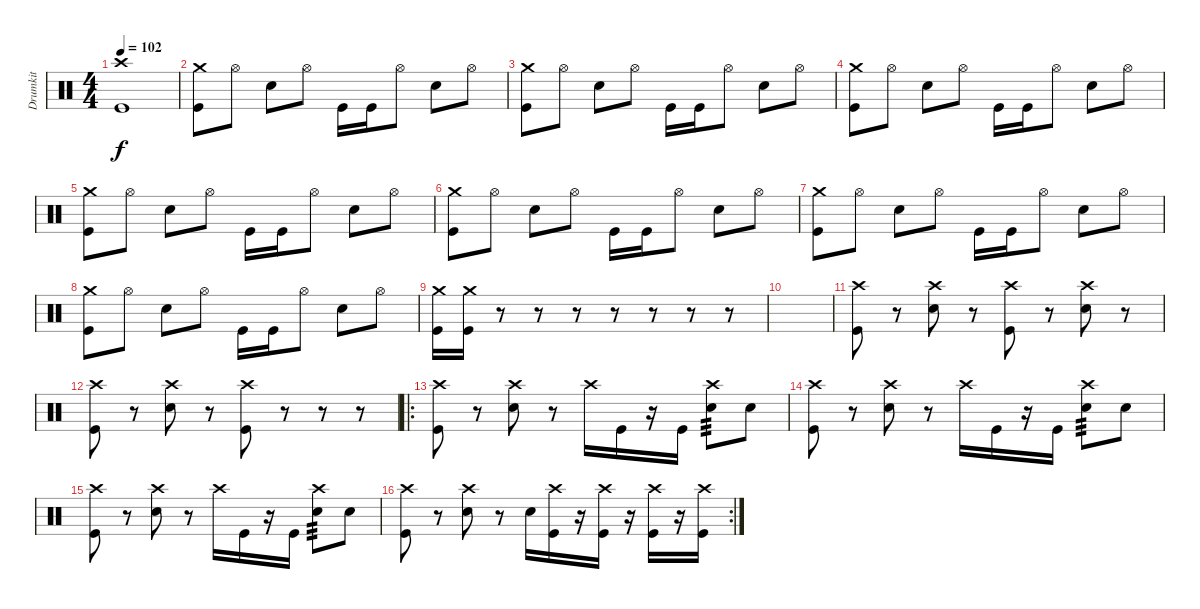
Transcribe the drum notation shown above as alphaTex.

\track ("Drumkit" "Drumkit") {instrument percussion}
\staff {score}
\articulation defaults
\ts (4 4)
\tempo 102
\clef neutral
\ks c
("Kick (hit)" "Crash high (hit)").1{dy f} |
("Kick (hit)" "Crash medium (hit)").8 "Hi-Hat (open)".8 "Snare (hit) 2".8 "Hi-Hat (open)".8 "Kick (hit)".16 "Kick (hit)".16 "Hi-Hat (open)".8 "Snare (hit) 2".8 "Hi-Hat (open)".8 |
("Kick (hit)" "Crash medium (hit)").8 "Hi-Hat (open)".8 "Snare (hit) 2".8 "Hi-Hat (open)".8 "Kick (hit)".16 "Kick (hit)".16 "Hi-Hat (open)".8 "Snare (hit) 2".8 "Hi-Hat (open)".8 |
("Kick (hit)" "Crash medium (hit)").8 "Hi-Hat (open)".8 "Snare (hit) 2".8 "Hi-Hat (open)".8 "Kick (hit)".16 "Kick (hit)".16 "Hi-Hat (open)".8 "Snare (hit) 2".8 "Hi-Hat (open)".8 |
("Kick (hit)" "Crash medium (hit)").8 "Hi-Hat (open)".8 "Snare (hit) 2".8 "Hi-Hat (open)".8 "Kick (hit)".16 "Kick (hit)".16 "Hi-Hat (open)".8 "Snare (hit) 2".8 "Hi-Hat (open)".8 |
("Kick (hit)" "Crash medium (hit)").8 "Hi-Hat (open)".8 "Snare (hit) 2".8 "Hi-Hat (open)".8 "Kick (hit)".16 "Kick (hit)".16 "Hi-Hat (open)".8 "Snare (hit) 2".8 "Hi-Hat (open)".8 |
("Kick (hit)" "Crash medium (hit)").8 "Hi-Hat (open)".8 "Snare (hit) 2".8 "Hi-Hat (open)".8 "Kick (hit)".16 "Kick (hit)".16 "Hi-Hat (open)".8 "Snare (hit) 2".8 "Hi-Hat (open)".8 |
("Kick (hit)" "Crash medium (hit)").8 "Hi-Hat (open)".8 "Snare (hit) 2".8 "Hi-Hat (open)".8 "Kick (hit)".16 "Kick (hit)".16 "Hi-Hat (open)".8 "Snare (hit) 2".8 "Hi-Hat (open)".8 |
("Kick (hit)" "Crash medium (hit)").16 ("Kick (hit)" "Crash medium (hit)").16 r.8 r.8 r.8 r.8 r.8 r.8 r.8 |
|
("Kick (hit)" "Crash high (hit)").8 r.8 ("Snare (hit) 2" "Crash high (hit)").8 r.8 ("Crash high (hit)" "Kick (hit)").8 r.8 ("Crash high (hit)" "Snare (hit) 2").8 r.8 |
("Kick (hit)" "Crash high (hit)").8 r.8 ("Snare (hit) 2" "Crash high (hit)").8 r.8 ("Crash high (hit)" "Kick (hit)").8 r.8 r.8 r.8 |
\ro
("Crash high (hit)" "Kick (hit)").8 r.8 ("Crash high (hit)" "Snare (hit) 2").8 r.8 "Crash high (hit)".16 "Kick (hit)".16 r.16 "Kick (hit)".16 ("Crash high (hit)" "Snare (hit) 2").8{tp 3} "Snare (hit) 2".8 |
("Crash high (hit)" "Kick (hit)").8 r.8 ("Crash high (hit)" "Snare (hit) 2").8 r.8 "Crash high (hit)".16 "Kick (hit)".16 r.16 "Kick (hit)".16 ("Crash high (hit)" "Snare (hit) 2").8{tp 3} "Snare (hit) 2".8 |
("Crash high (hit)" "Kick (hit)").8 r.8 ("Crash high (hit)" "Snare (hit) 2").8 r.8 "Crash high (hit)".16 "Kick (hit)".16 r.16 "Kick (hit)".16 ("Crash high (hit)" "Snare (hit) 2").8{tp 3} "Snare (hit) 2".8 |
\rc 2
("Crash high (hit)" "Kick (hit)").8 r.8 ("Crash high (hit)" "Snare (hit) 2").8 r.8 "Snare (hit) 2".16 ("Kick (hit)" "Crash high (hit)").16 r.16 ("Kick (hit)" "Crash high (hit)").16 r.16 ("Kick (hit)" "Crash high (hit)").16 r.16 ("Kick (hit)" "Crash high (hit)").16
